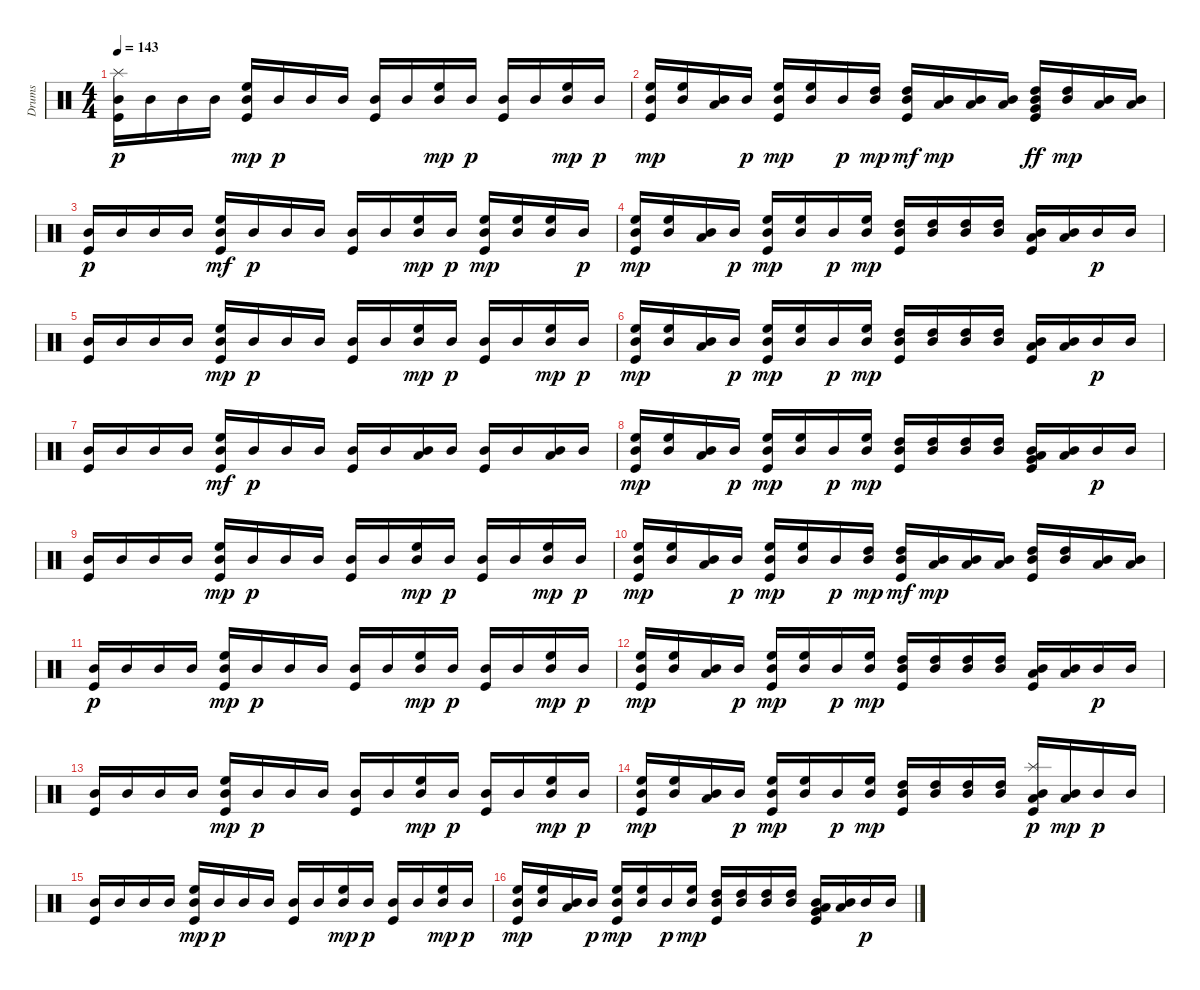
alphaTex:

\track ("Drums" "Drums") {instrument percussion}
\staff {score}
\articulation defaults
\ts (4 4)
\tempo 143
\clef neutral
\ks c
("Kick (hit)" "Mid Tom (hit)" "Splash (hit)").16{dy p} "Mid Tom (hit)".16 "Mid Tom (hit)".16 "Mid Tom (hit)".16 ("Kick (hit)" "Mid Tom (hit)" "High Floor Tom (hit)").16{dy mp} "Mid Tom (hit)".16{dy p} "Mid Tom (hit)".16 "Mid Tom (hit)".16 ("Kick (hit)" "Mid Tom (hit)").16 "Mid Tom (hit)".16 ("Mid Tom (hit)" "High Floor Tom (hit)").16{dy mp} "Mid Tom (hit)".16{dy p} ("Kick (hit)" "Mid Tom (hit)").16 "Mid Tom (hit)".16 ("Mid Tom (hit)" "High Floor Tom (hit)").16{dy mp} "Mid Tom (hit)".16{dy p} |
("Kick (hit)" "Mid Tom (hit)" "High Floor Tom (hit)").16{dy mp} ("Mid Tom (hit)" "High Floor Tom (hit)").16 ("Mid Tom (hit)" "Low Tom (hit)").16 "Mid Tom (hit)".16{dy p} ("Kick (hit)" "Mid Tom (hit)" "High Floor Tom (hit)").16{dy mp} ("Mid Tom (hit)" "High Floor Tom (hit)").16 "Mid Tom (hit)".16{dy p} ("Mid Tom (hit)" "High Tom (hit)").16{dy mp} ("Kick (hit)" "Mid Tom (hit)" "High Tom (hit)").16{dy mf} ("Mid Tom (hit)" "Low Tom (hit)").16{dy mp} ("Mid Tom (hit)" "Low Tom (hit)").16 ("Mid Tom (hit)" "Low Tom (hit)").16 ("Kick (hit)" "Mid Tom (hit)" "High Tom (hit)" "Very Low Tom (hit)").16{dy ff} ("Mid Tom (hit)" "High Tom (hit)").16{dy mp} ("Mid Tom (hit)" "Low Tom (hit)").16 ("Mid Tom (hit)" "Low Tom (hit)").16 |
("Kick (hit)" "Mid Tom (hit)").16{dy p} "Mid Tom (hit)".16 "Mid Tom (hit)".16 "Mid Tom (hit)".16 ("Kick (hit)" "Mid Tom (hit)" "High Floor Tom (hit)").16{dy mf} "Mid Tom (hit)".16{dy p} "Mid Tom (hit)".16 "Mid Tom (hit)".16 ("Kick (hit)" "Mid Tom (hit)").16 "Mid Tom (hit)".16 ("Mid Tom (hit)" "High Floor Tom (hit)").16{dy mp} "Mid Tom (hit)".16{dy p} ("Kick (hit)" "Mid Tom (hit)" "High Floor Tom (hit)").16{dy mp} ("Mid Tom (hit)" "High Floor Tom (hit)").16 ("Mid Tom (hit)" "High Floor Tom (hit)").16 "Mid Tom (hit)".16{dy p} |
("Kick (hit)" "Mid Tom (hit)" "High Floor Tom (hit)").16{dy mp} ("Mid Tom (hit)" "High Floor Tom (hit)").16 ("Mid Tom (hit)" "Low Tom (hit)").16 "Mid Tom (hit)".16{dy p} ("Kick (hit)" "Mid Tom (hit)" "High Floor Tom (hit)").16{dy mp} ("Mid Tom (hit)" "High Floor Tom (hit)").16 "Mid Tom (hit)".16{dy p} ("Mid Tom (hit)" "High Floor Tom (hit)").16{dy mp} ("Kick (hit)" "Mid Tom (hit)" "High Tom (hit)").16 ("Mid Tom (hit)" "High Tom (hit)").16 ("Mid Tom (hit)" "High Tom (hit)").16 ("Mid Tom (hit)" "High Tom (hit)").16 ("Kick (hit)" "Mid Tom (hit)" "Low Tom (hit)").16 ("Mid Tom (hit)" "Low Tom (hit)").16 "Mid Tom (hit)".16{dy p} "Mid Tom (hit)".16 |
("Kick (hit)" "Mid Tom (hit)").16 "Mid Tom (hit)".16 "Mid Tom (hit)".16 "Mid Tom (hit)".16 ("Kick (hit)" "Mid Tom (hit)" "High Floor Tom (hit)").16{dy mp} "Mid Tom (hit)".16{dy p} "Mid Tom (hit)".16 "Mid Tom (hit)".16 ("Kick (hit)" "Mid Tom (hit)").16 "Mid Tom (hit)".16 ("Mid Tom (hit)" "High Floor Tom (hit)").16{dy mp} "Mid Tom (hit)".16{dy p} ("Kick (hit)" "Mid Tom (hit)").16 "Mid Tom (hit)".16 ("Mid Tom (hit)" "High Floor Tom (hit)").16{dy mp} "Mid Tom (hit)".16{dy p} |
("Kick (hit)" "Mid Tom (hit)" "High Floor Tom (hit)").16{dy mp} ("Mid Tom (hit)" "High Floor Tom (hit)").16 ("Mid Tom (hit)" "Low Tom (hit)").16 "Mid Tom (hit)".16{dy p} ("Kick (hit)" "Mid Tom (hit)" "High Floor Tom (hit)").16{dy mp} ("Mid Tom (hit)" "High Floor Tom (hit)").16 "Mid Tom (hit)".16{dy p} ("Mid Tom (hit)" "High Floor Tom (hit)").16{dy mp} ("Kick (hit)" "Mid Tom (hit)" "High Tom (hit)").16 ("Mid Tom (hit)" "High Tom (hit)").16 ("Mid Tom (hit)" "High Tom (hit)").16 ("Mid Tom (hit)" "High Tom (hit)").16 ("Kick (hit)" "Mid Tom (hit)" "Low Tom (hit)").16 ("Mid Tom (hit)" "Low Tom (hit)").16 "Mid Tom (hit)".16{dy p} "Mid Tom (hit)".16 |
("Kick (hit)" "Mid Tom (hit)").16 "Mid Tom (hit)".16 "Mid Tom (hit)".16 "Mid Tom (hit)".16 ("Kick (hit)" "Mid Tom (hit)" "High Floor Tom (hit)").16{dy mf} "Mid Tom (hit)".16{dy p} "Mid Tom (hit)".16 "Mid Tom (hit)".16 ("Kick (hit)" "Mid Tom (hit)").16 "Mid Tom (hit)".16 ("Mid Tom (hit)" "Low Tom (hit)").16 "Mid Tom (hit)".16 ("Kick (hit)" "Mid Tom (hit)").16 "Mid Tom (hit)".16 ("Mid Tom (hit)" "Low Tom (hit)").16 "Mid Tom (hit)".16 |
("Kick (hit)" "Mid Tom (hit)" "High Floor Tom (hit)").16{dy mp} ("Mid Tom (hit)" "High Floor Tom (hit)").16 ("Mid Tom (hit)" "Low Tom (hit)").16 "Mid Tom (hit)".16{dy p} ("Kick (hit)" "Mid Tom (hit)" "High Floor Tom (hit)").16{dy mp} ("Mid Tom (hit)" "High Floor Tom (hit)").16 "Mid Tom (hit)".16{dy p} ("Mid Tom (hit)" "High Floor Tom (hit)").16{dy mp} ("Kick (hit)" "Mid Tom (hit)" "High Tom (hit)").16 ("Mid Tom (hit)" "High Tom (hit)").16 ("Mid Tom (hit)" "High Tom (hit)").16 ("Mid Tom (hit)" "High Tom (hit)").16 ("Kick (hit)" "Mid Tom (hit)" "Low Tom (hit)" "Very Low Tom (hit)").16 ("Mid Tom (hit)" "Low Tom (hit)").16 "Mid Tom (hit)".16{dy p} "Mid Tom (hit)".16 |
("Kick (hit)" "Mid Tom (hit)").16 "Mid Tom (hit)".16 "Mid Tom (hit)".16 "Mid Tom (hit)".16 ("Kick (hit)" "Mid Tom (hit)" "High Floor Tom (hit)").16{dy mp} "Mid Tom (hit)".16{dy p} "Mid Tom (hit)".16 "Mid Tom (hit)".16 ("Kick (hit)" "Mid Tom (hit)").16 "Mid Tom (hit)".16 ("Mid Tom (hit)" "High Floor Tom (hit)").16{dy mp} "Mid Tom (hit)".16{dy p} ("Kick (hit)" "Mid Tom (hit)").16 "Mid Tom (hit)".16 ("Mid Tom (hit)" "High Floor Tom (hit)").16{dy mp} "Mid Tom (hit)".16{dy p} |
("Kick (hit)" "Mid Tom (hit)" "High Floor Tom (hit)").16{dy mp} ("Mid Tom (hit)" "High Floor Tom (hit)").16 ("Mid Tom (hit)" "Low Tom (hit)").16 "Mid Tom (hit)".16{dy p} ("Kick (hit)" "Mid Tom (hit)" "High Floor Tom (hit)").16{dy mp} ("Mid Tom (hit)" "High Floor Tom (hit)").16 "Mid Tom (hit)".16{dy p} ("Mid Tom (hit)" "High Tom (hit)").16{dy mp} ("Kick (hit)" "Mid Tom (hit)" "High Tom (hit)").16{dy mf} ("Mid Tom (hit)" "Low Tom (hit)").16{dy mp} ("Mid Tom (hit)" "Low Tom (hit)").16 ("Mid Tom (hit)" "Low Tom (hit)").16 ("Kick (hit)" "Mid Tom (hit)" "High Tom (hit)").16 ("Mid Tom (hit)" "High Tom (hit)").16 ("Mid Tom (hit)" "Low Tom (hit)").16 ("Mid Tom (hit)" "Low Tom (hit)").16 |
("Kick (hit)" "Mid Tom (hit)").16{dy p} "Mid Tom (hit)".16 "Mid Tom (hit)".16 "Mid Tom (hit)".16 ("Kick (hit)" "Mid Tom (hit)" "High Floor Tom (hit)").16{dy mp} "Mid Tom (hit)".16{dy p} "Mid Tom (hit)".16 "Mid Tom (hit)".16 ("Kick (hit)" "Mid Tom (hit)").16 "Mid Tom (hit)".16 ("Mid Tom (hit)" "High Floor Tom (hit)").16{dy mp} "Mid Tom (hit)".16{dy p} ("Kick (hit)" "Mid Tom (hit)").16 "Mid Tom (hit)".16 ("Mid Tom (hit)" "High Floor Tom (hit)").16{dy mp} "Mid Tom (hit)".16{dy p} |
("Kick (hit)" "Mid Tom (hit)" "High Floor Tom (hit)").16{dy mp} ("Mid Tom (hit)" "High Floor Tom (hit)").16 ("Mid Tom (hit)" "Low Tom (hit)").16 "Mid Tom (hit)".16{dy p} ("Kick (hit)" "Mid Tom (hit)" "High Floor Tom (hit)").16{dy mp} ("Mid Tom (hit)" "High Floor Tom (hit)").16 "Mid Tom (hit)".16{dy p} ("Mid Tom (hit)" "High Floor Tom (hit)").16{dy mp} ("Kick (hit)" "Mid Tom (hit)" "High Tom (hit)").16 ("Mid Tom (hit)" "High Tom (hit)").16 ("Mid Tom (hit)" "High Tom (hit)").16 ("Mid Tom (hit)" "High Tom (hit)").16 ("Kick (hit)" "Mid Tom (hit)" "Low Tom (hit)").16 ("Mid Tom (hit)" "Low Tom (hit)").16 "Mid Tom (hit)".16{dy p} "Mid Tom (hit)".16 |
("Kick (hit)" "Mid Tom (hit)").16 "Mid Tom (hit)".16 "Mid Tom (hit)".16 "Mid Tom (hit)".16 ("Kick (hit)" "Mid Tom (hit)" "High Floor Tom (hit)").16{dy mp} "Mid Tom (hit)".16{dy p} "Mid Tom (hit)".16 "Mid Tom (hit)".16 ("Kick (hit)" "Mid Tom (hit)").16 "Mid Tom (hit)".16 ("Mid Tom (hit)" "High Floor Tom (hit)").16{dy mp} "Mid Tom (hit)".16{dy p} ("Kick (hit)" "Mid Tom (hit)").16 "Mid Tom (hit)".16 ("Mid Tom (hit)" "High Floor Tom (hit)").16{dy mp} "Mid Tom (hit)".16{dy p} |
("Kick (hit)" "Mid Tom (hit)" "High Floor Tom (hit)").16{dy mp} ("Mid Tom (hit)" "High Floor Tom (hit)").16 ("Mid Tom (hit)" "Low Tom (hit)").16 "Mid Tom (hit)".16{dy p} ("Kick (hit)" "Mid Tom (hit)" "High Floor Tom (hit)").16{dy mp} ("Mid Tom (hit)" "High Floor Tom (hit)").16 "Mid Tom (hit)".16{dy p} ("Mid Tom (hit)" "High Floor Tom (hit)").16{dy mp} ("Kick (hit)" "Mid Tom (hit)" "High Tom (hit)").16 ("Mid Tom (hit)" "High Tom (hit)").16 ("Mid Tom (hit)" "High Tom (hit)").16 ("Mid Tom (hit)" "High Tom (hit)").16 ("Kick (hit)" "Mid Tom (hit)" "Low Tom (hit)" "Splash (hit)").16{dy p} ("Mid Tom (hit)" "Low Tom (hit)").16{dy mp} "Mid Tom (hit)".16{dy p} "Mid Tom (hit)".16 |
("Kick (hit)" "Mid Tom (hit)").16 "Mid Tom (hit)".16 "Mid Tom (hit)".16 "Mid Tom (hit)".16 ("Kick (hit)" "Mid Tom (hit)" "High Floor Tom (hit)").16{dy mp} "Mid Tom (hit)".16{dy p} "Mid Tom (hit)".16 "Mid Tom (hit)".16 ("Kick (hit)" "Mid Tom (hit)").16 "Mid Tom (hit)".16 ("Mid Tom (hit)" "High Floor Tom (hit)").16{dy mp} "Mid Tom (hit)".16{dy p} ("Kick (hit)" "Mid Tom (hit)").16 "Mid Tom (hit)".16 ("Mid Tom (hit)" "High Floor Tom (hit)").16{dy mp} "Mid Tom (hit)".16{dy p} |
("Kick (hit)" "Mid Tom (hit)" "High Floor Tom (hit)").16{dy mp} ("Mid Tom (hit)" "High Floor Tom (hit)").16 ("Mid Tom (hit)" "Low Tom (hit)").16 "Mid Tom (hit)".16{dy p} ("Kick (hit)" "Mid Tom (hit)" "High Floor Tom (hit)").16{dy mp} ("Mid Tom (hit)" "High Floor Tom (hit)").16 "Mid Tom (hit)".16{dy p} ("Mid Tom (hit)" "High Floor Tom (hit)").16{dy mp} ("Kick (hit)" "Mid Tom (hit)" "High Tom (hit)").16 ("Mid Tom (hit)" "High Tom (hit)").16 ("Mid Tom (hit)" "High Tom (hit)").16 ("Mid Tom (hit)" "High Tom (hit)").16 ("Kick (hit)" "Mid Tom (hit)" "Low Tom (hit)" "Very Low Tom (hit)").16 ("Mid Tom (hit)" "Low Tom (hit)").16 "Mid Tom (hit)".16{dy p} "Mid Tom (hit)".16
